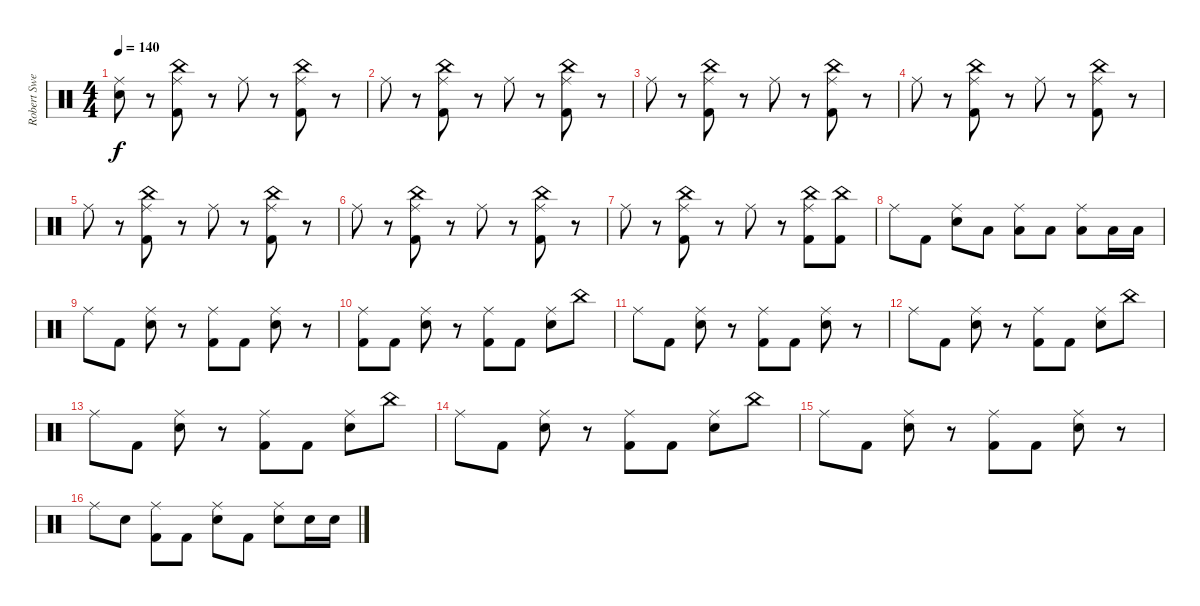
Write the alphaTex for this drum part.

\track ("Robert Sweet" "Robert Swe") {instrument percussion}
\staff {score}
\articulation defaults
\ts (4 4)
\tempo 140
\clef neutral
\ks c
("Ride (middle)" "Electric Snare (hit)").8{dy f} r.8 ("Ride (middle)" "Kick (hit) 2" "China (hit)").8 r.8 "Ride (middle)".8 r.8 ("Ride (middle)" "Kick (hit) 2" "China (hit)").8 r.8 |
"Ride (middle)".8 r.8 ("Ride (middle)" "Kick (hit) 2" "China (hit)").8 r.8 "Ride (middle)".8 r.8 ("Ride (middle)" "Kick (hit) 2" "China (hit)").8 r.8 |
"Ride (middle)".8 r.8 ("Ride (middle)" "Kick (hit) 2" "China (hit)").8 r.8 "Ride (middle)".8 r.8 ("Ride (middle)" "Kick (hit) 2" "China (hit)").8 r.8 |
"Ride (middle)".8 r.8 ("Ride (middle)" "Kick (hit) 2" "China (hit)").8 r.8 "Ride (middle)".8 r.8 ("Ride (middle)" "Kick (hit) 2" "China (hit)").8 r.8 |
"Ride (middle)".8 r.8 ("Ride (middle)" "Kick (hit) 2" "China (hit)").8 r.8 "Ride (middle)".8 r.8 ("Ride (middle)" "Kick (hit) 2" "China (hit)").8 r.8 |
"Ride (middle)".8 r.8 ("Ride (middle)" "Kick (hit) 2" "China (hit)").8 r.8 "Ride (middle)".8 r.8 ("Ride (middle)" "Kick (hit) 2" "China (hit)").8 r.8 |
"Ride (middle)".8 r.8 ("Ride (middle)" "Kick (hit) 2" "China (hit)").8 r.8 "Ride (middle)".8 r.8 ("Ride (middle)" "Kick (hit) 2" "China (hit)").8 ("Kick (hit) 2" "China (hit)").8 |
"Ride (middle)".8 "Kick (hit) 2".8 ("Ride (middle)" "Electric Snare (hit)").8 "Low Floor Tom (hit)".8 ("Ride (middle)" "Low Floor Tom (hit)").8 "Low Floor Tom (hit)".8 ("Ride (middle)" "Low Floor Tom (hit)").8 "Low Floor Tom (hit)".16 "Low Floor Tom (hit)".16 |
"Ride (middle)".8 "Kick (hit) 2".8 ("Ride (middle)" "Electric Snare (hit)").8 r.8 ("Ride (middle)" "Kick (hit) 2").8 "Kick (hit) 2".8 ("Ride (middle)" "Electric Snare (hit)").8 r.8 |
("Ride (middle)" "Kick (hit) 2").8 "Kick (hit) 2".8 ("Ride (middle)" "Electric Snare (hit)").8 r.8 ("Ride (middle)" "Kick (hit) 2").8 "Kick (hit) 2".8 ("Ride (middle)" "Electric Snare (hit)").8 "China (hit)".8 |
"Ride (middle)".8 "Kick (hit) 2".8 ("Ride (middle)" "Electric Snare (hit)").8 r.8 ("Ride (middle)" "Kick (hit) 2").8 "Kick (hit) 2".8 ("Ride (middle)" "Electric Snare (hit)").8 r.8 |
"Ride (middle)".8 "Kick (hit) 2".8 ("Ride (middle)" "Electric Snare (hit)").8 r.8 ("Ride (middle)" "Kick (hit) 2").8 "Kick (hit) 2".8 ("Ride (middle)" "Electric Snare (hit)").8 "China (hit)".8 |
"Ride (middle)".8 "Kick (hit) 2".8 ("Ride (middle)" "Electric Snare (hit)").8 r.8 ("Ride (middle)" "Kick (hit) 2").8 "Kick (hit) 2".8 ("Ride (middle)" "Electric Snare (hit)").8 "China (hit)".8 |
"Ride (middle)".8 "Kick (hit) 2".8 ("Ride (middle)" "Electric Snare (hit)").8 r.8 ("Ride (middle)" "Kick (hit) 2").8 "Kick (hit) 2".8 ("Ride (middle)" "Electric Snare (hit)").8 "China (hit)".8 |
"Ride (middle)".8 "Kick (hit) 2".8 ("Ride (middle)" "Electric Snare (hit)").8 r.8 ("Ride (middle)" "Kick (hit) 2").8 "Kick (hit) 2".8 ("Ride (middle)" "Electric Snare (hit)").8 r.8 |
"Ride (middle)".8 "Electric Snare (hit)".8 ("Ride (middle)" "Kick (hit) 2").8 "Kick (hit) 2".8 ("Ride (middle)" "Electric Snare (hit)").8 "Kick (hit) 2".8 ("Ride (middle)" "Electric Snare (hit)").8 "Electric Snare (hit)".16 "Electric Snare (hit)".16
